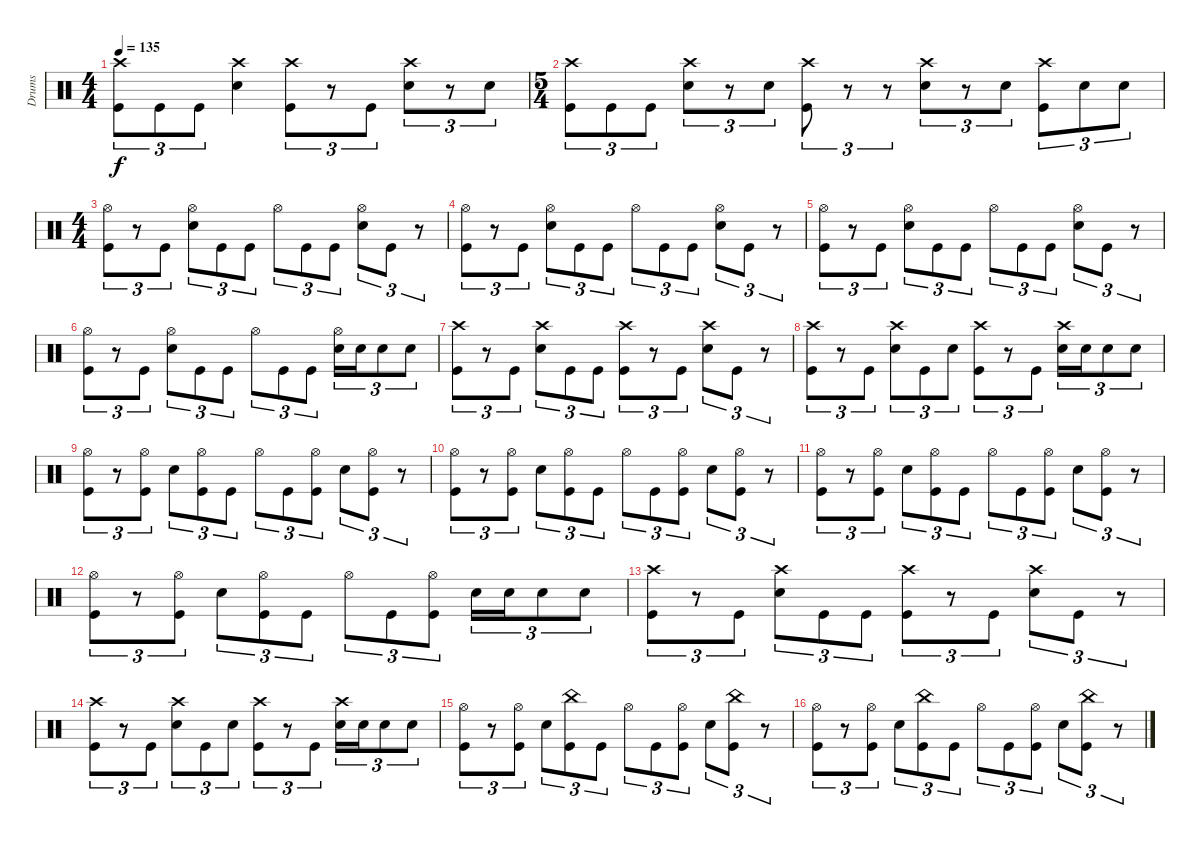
\track ("Drums" "Drums") {instrument percussion}
\staff {score}
\articulation defaults
\ts (4 4)
\tempo 135
\clef neutral
\ks c
("Kick (hit)" "Crash high (hit)").8{tu (3 2) dy f} "Kick (hit)".8{tu (3 2)} "Kick (hit)".8{tu (3 2)} ("Snare (hit) 2" "Crash high (hit)").4 ("Kick (hit)" "Crash high (hit)").8{tu (3 2)} r.8{tu (3 2)} "Kick (hit)".8{tu (3 2)} ("Snare (hit) 2" "Crash high (hit)").8{tu (3 2)} r.8{tu (3 2)} "Snare (hit) 2".8{tu (3 2)} |
\ts (5 4)
("Kick (hit)" "Crash high (hit)").8{tu (3 2)} "Kick (hit)".8{tu (3 2)} "Kick (hit)".8{tu (3 2)} ("Snare (hit) 2" "Crash high (hit)").8{tu (3 2)} r.8{tu (3 2)} "Snare (hit) 2".8{tu (3 2)} ("Kick (hit)" "Crash high (hit)").8{tu (3 2)} r.8{tu (3 2)} r.8{tu (3 2)} ("Snare (hit) 2" "Crash high (hit)").8{tu (3 2)} r.8{tu (3 2)} "Snare (hit) 2".8{tu (3 2)} ("Kick (hit)" "Crash high (hit)").8{tu (3 2)} "Snare (hit) 2".8{tu (3 2)} "Snare (hit) 2".8{tu (3 2)} |
\ts (4 4)
("Kick (hit)" "Hi-Hat (open)").8{tu (3 2)} r.8{tu (3 2)} "Kick (hit)".8{tu (3 2)} ("Snare (hit) 2" "Hi-Hat (open)").8{tu (3 2)} "Kick (hit)".8{tu (3 2)} "Kick (hit)".8{tu (3 2)} "Hi-Hat (open)".8{tu (3 2)} "Kick (hit)".8{tu (3 2)} "Kick (hit)".8{tu (3 2)} ("Snare (hit) 2" "Hi-Hat (open)").8{tu (3 2)} "Kick (hit)".8{tu (3 2)} r.8{tu (3 2)} |
("Kick (hit)" "Hi-Hat (open)").8{tu (3 2)} r.8{tu (3 2)} "Kick (hit)".8{tu (3 2)} ("Snare (hit) 2" "Hi-Hat (open)").8{tu (3 2)} "Kick (hit)".8{tu (3 2)} "Kick (hit)".8{tu (3 2)} "Hi-Hat (open)".8{tu (3 2)} "Kick (hit)".8{tu (3 2)} "Kick (hit)".8{tu (3 2)} ("Snare (hit) 2" "Hi-Hat (open)").8{tu (3 2)} "Kick (hit)".8{tu (3 2)} r.8{tu (3 2)} |
("Kick (hit)" "Hi-Hat (open)").8{tu (3 2)} r.8{tu (3 2)} "Kick (hit)".8{tu (3 2)} ("Snare (hit) 2" "Hi-Hat (open)").8{tu (3 2)} "Kick (hit)".8{tu (3 2)} "Kick (hit)".8{tu (3 2)} "Hi-Hat (open)".8{tu (3 2)} "Kick (hit)".8{tu (3 2)} "Kick (hit)".8{tu (3 2)} ("Snare (hit) 2" "Hi-Hat (open)").8{tu (3 2)} "Kick (hit)".8{tu (3 2)} r.8{tu (3 2)} |
("Kick (hit)" "Hi-Hat (open)").8{tu (3 2)} r.8{tu (3 2)} "Kick (hit)".8{tu (3 2)} ("Snare (hit) 2" "Hi-Hat (open)").8{tu (3 2)} "Kick (hit)".8{tu (3 2)} "Kick (hit)".8{tu (3 2)} "Hi-Hat (open)".8{tu (3 2)} "Kick (hit)".8{tu (3 2)} "Kick (hit)".8{tu (3 2)} ("Snare (hit) 2" "Hi-Hat (open)").16{tu (3 2)} "Snare (hit) 2".16{tu (3 2)} "Snare (hit) 2".8{tu (3 2)} "Snare (hit) 2".8{tu (3 2)} |
("Kick (hit)" "Crash high (hit)").8{tu (3 2)} r.8{tu (3 2)} "Kick (hit)".8{tu (3 2)} ("Snare (hit) 2" "Crash high (hit)").8{tu (3 2)} "Kick (hit)".8{tu (3 2)} "Kick (hit)".8{tu (3 2)} ("Kick (hit)" "Crash high (hit)").8{tu (3 2)} r.8{tu (3 2)} "Kick (hit)".8{tu (3 2)} ("Snare (hit) 2" "Crash high (hit)").8{tu (3 2)} "Kick (hit)".8{tu (3 2)} r.8{tu (3 2)} |
("Kick (hit)" "Crash high (hit)").8{tu (3 2)} r.8{tu (3 2)} "Kick (hit)".8{tu (3 2)} ("Snare (hit) 2" "Crash high (hit)").8{tu (3 2)} "Kick (hit)".8{tu (3 2)} "Snare (hit) 2".8{tu (3 2)} ("Kick (hit)" "Crash high (hit)").8{tu (3 2)} r.8{tu (3 2)} "Kick (hit)".8{tu (3 2)} ("Snare (hit) 2" "Crash high (hit)").16{tu (3 2)} "Snare (hit) 2".16{tu (3 2)} "Snare (hit) 2".8{tu (3 2)} "Snare (hit) 2".8{tu (3 2)} |
("Kick (hit)" "Hi-Hat (open)").8{tu (3 2)} r.8{tu (3 2)} ("Kick (hit)" "Hi-Hat (open)").8{tu (3 2)} "Snare (hit) 2".8{tu (3 2)} ("Kick (hit)" "Hi-Hat (open)").8{tu (3 2)} "Kick (hit)".8{tu (3 2)} "Hi-Hat (open)".8{tu (3 2)} "Kick (hit)".8{tu (3 2)} ("Kick (hit)" "Hi-Hat (open)").8{tu (3 2)} "Snare (hit) 2".8{tu (3 2)} ("Kick (hit)" "Hi-Hat (open)").8{tu (3 2)} r.8{tu (3 2)} |
("Kick (hit)" "Hi-Hat (open)").8{tu (3 2)} r.8{tu (3 2)} ("Kick (hit)" "Hi-Hat (open)").8{tu (3 2)} "Snare (hit) 2".8{tu (3 2)} ("Kick (hit)" "Hi-Hat (open)").8{tu (3 2)} "Kick (hit)".8{tu (3 2)} "Hi-Hat (open)".8{tu (3 2)} "Kick (hit)".8{tu (3 2)} ("Kick (hit)" "Hi-Hat (open)").8{tu (3 2)} "Snare (hit) 2".8{tu (3 2)} ("Kick (hit)" "Hi-Hat (open)").8{tu (3 2)} r.8{tu (3 2)} |
("Kick (hit)" "Hi-Hat (open)").8{tu (3 2)} r.8{tu (3 2)} ("Kick (hit)" "Hi-Hat (open)").8{tu (3 2)} "Snare (hit) 2".8{tu (3 2)} ("Kick (hit)" "Hi-Hat (open)").8{tu (3 2)} "Kick (hit)".8{tu (3 2)} "Hi-Hat (open)".8{tu (3 2)} "Kick (hit)".8{tu (3 2)} ("Kick (hit)" "Hi-Hat (open)").8{tu (3 2)} "Snare (hit) 2".8{tu (3 2)} ("Kick (hit)" "Hi-Hat (open)").8{tu (3 2)} r.8{tu (3 2)} |
("Kick (hit)" "Hi-Hat (open)").8{tu (3 2)} r.8{tu (3 2)} ("Kick (hit)" "Hi-Hat (open)").8{tu (3 2)} "Snare (hit) 2".8{tu (3 2)} ("Kick (hit)" "Hi-Hat (open)").8{tu (3 2)} "Kick (hit)".8{tu (3 2)} "Hi-Hat (open)".8{tu (3 2)} "Kick (hit)".8{tu (3 2)} ("Kick (hit)" "Hi-Hat (open)").8{tu (3 2)} "Snare (hit) 2".16{tu (3 2)} "Snare (hit) 2".16{tu (3 2)} "Snare (hit) 2".8{tu (3 2)} "Snare (hit) 2".8{tu (3 2)} |
("Kick (hit)" "Crash high (hit)").8{tu (3 2)} r.8{tu (3 2)} "Kick (hit)".8{tu (3 2)} ("Snare (hit) 2" "Crash high (hit)").8{tu (3 2)} "Kick (hit)".8{tu (3 2)} "Kick (hit)".8{tu (3 2)} ("Kick (hit)" "Crash high (hit)").8{tu (3 2)} r.8{tu (3 2)} "Kick (hit)".8{tu (3 2)} ("Snare (hit) 2" "Crash high (hit)").8{tu (3 2)} "Kick (hit)".8{tu (3 2)} r.8{tu (3 2)} |
("Kick (hit)" "Crash high (hit)").8{tu (3 2)} r.8{tu (3 2)} "Kick (hit)".8{tu (3 2)} ("Snare (hit) 2" "Crash high (hit)").8{tu (3 2)} "Kick (hit)".8{tu (3 2)} "Snare (hit) 2".8{tu (3 2)} ("Kick (hit)" "Crash high (hit)").8{tu (3 2)} r.8{tu (3 2)} "Kick (hit)".8{tu (3 2)} ("Snare (hit) 2" "Crash high (hit)").16{tu (3 2)} "Snare (hit) 2".16{tu (3 2)} "Snare (hit) 2".8{tu (3 2)} "Snare (hit) 2".8{tu (3 2)} |
("Kick (hit)" "Hi-Hat (open)").8{tu (3 2)} r.8{tu (3 2)} ("Kick (hit)" "Hi-Hat (open)").8{tu (3 2)} "Snare (hit) 2".8{tu (3 2)} ("Kick (hit)" "China (hit)").8{tu (3 2)} "Kick (hit)".8{tu (3 2)} "Hi-Hat (open)".8{tu (3 2)} "Kick (hit)".8{tu (3 2)} ("Kick (hit)" "Hi-Hat (open)").8{tu (3 2)} "Snare (hit) 2".8{tu (3 2)} ("Kick (hit)" "China (hit)").8{tu (3 2)} r.8{tu (3 2)} |
("Kick (hit)" "Hi-Hat (open)").8{tu (3 2)} r.8{tu (3 2)} ("Kick (hit)" "Hi-Hat (open)").8{tu (3 2)} "Snare (hit) 2".8{tu (3 2)} ("Kick (hit)" "China (hit)").8{tu (3 2)} "Kick (hit)".8{tu (3 2)} "Hi-Hat (open)".8{tu (3 2)} "Kick (hit)".8{tu (3 2)} ("Kick (hit)" "Hi-Hat (open)").8{tu (3 2)} "Snare (hit) 2".8{tu (3 2)} ("Kick (hit)" "China (hit)").8{tu (3 2)} r.8{tu (3 2)}
